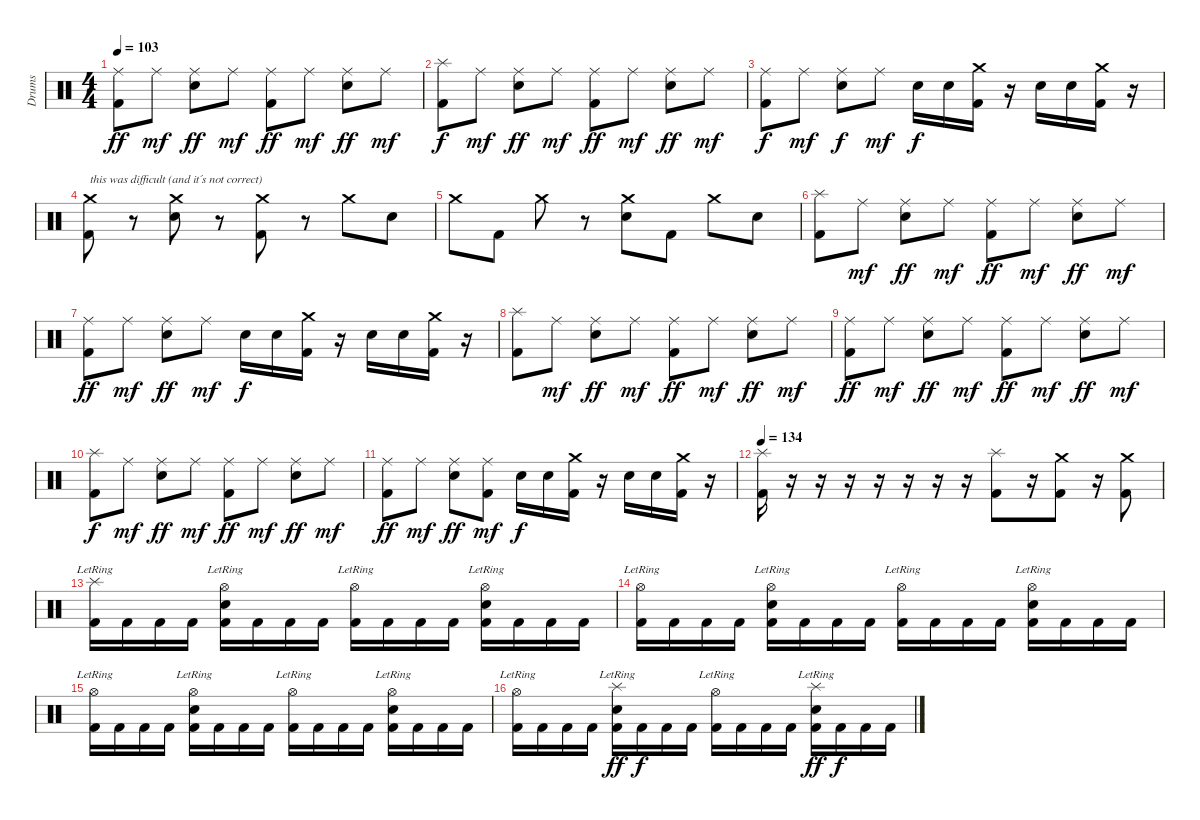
\track ("Drums" "Drums") {instrument percussion}
\staff {score}
\articulation defaults
\ts (4 4)
\tempo 103
\clef neutral
\ks c
("Ride (middle)" "Kick (hit) 2").8{dy ff} "Ride (middle)".8{dy mf} ("Ride (middle)" "Snare (hit) 2").8{dy ff} "Ride (middle)".8{dy mf} ("Ride (middle)" "Kick (hit) 2").8{dy ff} "Ride (middle)".8{dy mf} ("Ride (middle)" "Snare (hit) 2").8{dy ff} "Ride (middle)".8{dy mf} |
("Splash (hit)" "Kick (hit) 2").8{dy f} "Ride (middle)".8{dy mf} ("Ride (middle)" "Snare (hit) 2").8{dy ff} "Ride (middle)".8{dy mf} ("Ride (middle)" "Kick (hit) 2").8{dy ff} "Ride (middle)".8{dy mf} ("Ride (middle)" "Snare (hit) 2").8{dy ff} "Ride (middle)".8{dy mf} |
("Ride (middle)" "Kick (hit) 2").8{dy f} "Ride (middle)".8{dy mf} ("Ride (middle)" "Snare (hit) 2").8{dy f} "Ride (middle)".8{dy mf} "Snare (hit) 2".16{dy f} "Snare (hit) 2".16 ("Crash medium (hit)" "Kick (hit) 2").16 r.16 "Snare (hit) 2".16 "Snare (hit) 2".16 ("Crash medium (hit)" "Kick (hit) 2").16 r.16 |
("Crash medium (hit)" "Kick (hit) 2").8{txt "this was difficult (and it´s not correct)"} r.8 ("Crash medium (hit)" "Snare (hit) 2").8 r.8 ("Crash medium (hit)" "Kick (hit) 2").8 r.8 "Crash medium (hit)".8 "Snare (hit) 2".8 |
"Crash medium (hit)".8 "Kick (hit) 2".8 "Crash medium (hit)".8 r.8 ("Crash medium (hit)" "Snare (hit) 2").8 "Kick (hit) 2".8 "Crash medium (hit)".8 "Snare (hit) 2".8 |
("Splash (hit)" "Kick (hit) 2").8 "Ride (middle)".8{dy mf} ("Ride (middle)" "Snare (hit) 2").8{dy ff} "Ride (middle)".8{dy mf} ("Ride (middle)" "Kick (hit) 2").8{dy ff} "Ride (middle)".8{dy mf} ("Ride (middle)" "Snare (hit) 2").8{dy ff} "Ride (middle)".8{dy mf} |
("Ride (middle)" "Kick (hit) 2").8{dy ff} "Ride (middle)".8{dy mf} ("Ride (middle)" "Snare (hit) 2").8{dy ff} "Ride (middle)".8{dy mf} "Snare (hit) 2".16{dy f} "Snare (hit) 2".16 ("Crash medium (hit)" "Kick (hit) 2").16 r.16 "Snare (hit) 2".16 "Snare (hit) 2".16 ("Crash medium (hit)" "Kick (hit) 2").16 r.16 |
("Splash (hit)" "Kick (hit) 2").8 "Ride (middle)".8{dy mf} ("Ride (middle)" "Snare (hit) 2").8{dy ff} "Ride (middle)".8{dy mf} ("Ride (middle)" "Kick (hit) 2").8{dy ff} "Ride (middle)".8{dy mf} ("Ride (middle)" "Snare (hit) 2").8{dy ff} "Ride (middle)".8{dy mf} |
("Ride (middle)" "Kick (hit) 2").8{dy ff} "Ride (middle)".8{dy mf} ("Ride (middle)" "Snare (hit) 2").8{dy ff} "Ride (middle)".8{dy mf} ("Ride (middle)" "Kick (hit) 2").8{dy ff} "Ride (middle)".8{dy mf} ("Ride (middle)" "Snare (hit) 2").8{dy ff} "Ride (middle)".8{dy mf} |
("Splash (hit)" "Kick (hit) 2").8{dy f} "Ride (middle)".8{dy mf} ("Ride (middle)" "Snare (hit) 2").8{dy ff} "Ride (middle)".8{dy mf} ("Ride (middle)" "Kick (hit) 2").8{dy ff} "Ride (middle)".8{dy mf} ("Ride (middle)" "Snare (hit) 2").8{dy ff} "Ride (middle)".8{dy mf} |
("Ride (middle)" "Kick (hit) 2").8{dy ff} "Ride (middle)".8{dy mf} ("Ride (middle)" "Snare (hit) 2").8{dy ff} ("Ride (middle)" "Kick (hit) 2").8{dy mf} "Snare (hit) 2".16{dy f} "Snare (hit) 2".16 ("Crash medium (hit)" "Kick (hit) 2").16 r.16 "Snare (hit) 2".16 "Snare (hit) 2".16 ("Crash medium (hit)" "Kick (hit) 2").16 r.16 |
\tempo 134
("Splash (hit)" "Kick (hit) 2").16 r.16 r.16 r.16 r.16 r.16 r.16 r.16 ("Splash (hit)" "Kick (hit) 2").8 r.16 ("Crash medium (hit)" "Kick (hit) 2").8 r.16 ("Crash medium (hit)" "Kick (hit) 2").8 |
("Splash (hit)"{lr} "Kick (hit) 2").16 "Kick (hit) 2".16 "Kick (hit) 2".16 "Kick (hit) 2".16 ("Hi-Hat (open)"{lr} "Snare (hit) 2" "Kick (hit) 2").16 "Kick (hit) 2".16 "Kick (hit) 2".16 "Kick (hit) 2".16 ("Hi-Hat (open)"{lr} "Kick (hit) 2").16 "Kick (hit) 2".16 "Kick (hit) 2".16 "Kick (hit) 2".16 ("Hi-Hat (open)"{lr} "Snare (hit) 2" "Kick (hit) 2").16 "Kick (hit) 2".16 "Kick (hit) 2".16 "Kick (hit) 2".16 |
("Hi-Hat (open)"{lr} "Kick (hit) 2").16 "Kick (hit) 2".16 "Kick (hit) 2".16 "Kick (hit) 2".16 ("Hi-Hat (open)"{lr} "Snare (hit) 2" "Kick (hit) 2").16 "Kick (hit) 2".16 "Kick (hit) 2".16 "Kick (hit) 2".16 ("Hi-Hat (open)"{lr} "Kick (hit) 2").16 "Kick (hit) 2".16 "Kick (hit) 2".16 "Kick (hit) 2".16 ("Hi-Hat (open)"{lr} "Snare (hit) 2" "Kick (hit) 2").16 "Kick (hit) 2".16 "Kick (hit) 2".16 "Kick (hit) 2".16 |
("Hi-Hat (open)"{lr} "Kick (hit) 2").16 "Kick (hit) 2".16 "Kick (hit) 2".16 "Kick (hit) 2".16 ("Hi-Hat (open)"{lr} "Snare (hit) 2" "Kick (hit) 2").16 "Kick (hit) 2".16 "Kick (hit) 2".16 "Kick (hit) 2".16 ("Hi-Hat (open)"{lr} "Kick (hit) 2").16 "Kick (hit) 2".16 "Kick (hit) 2".16 "Kick (hit) 2".16 ("Hi-Hat (open)"{lr} "Snare (hit) 2" "Kick (hit) 2").16 "Kick (hit) 2".16 "Kick (hit) 2".16 "Kick (hit) 2".16 |
("Hi-Hat (open)"{lr} "Kick (hit) 2").16 "Kick (hit) 2".16 "Kick (hit) 2".16 "Kick (hit) 2".16 ("Snare (hit) 2" "Splash (hit)"{lr} "Kick (hit) 2").16{dy ff} "Kick (hit) 2".16{dy f} "Kick (hit) 2".16 "Kick (hit) 2".16 ("Hi-Hat (open)"{lr} "Kick (hit) 2").16 "Kick (hit) 2".16 "Kick (hit) 2".16 "Kick (hit) 2".16 ("Snare (hit) 2" "Splash (hit)"{lr} "Kick (hit) 2").16{dy ff} "Kick (hit) 2".16{dy f} "Kick (hit) 2".16 "Kick (hit) 2".16
